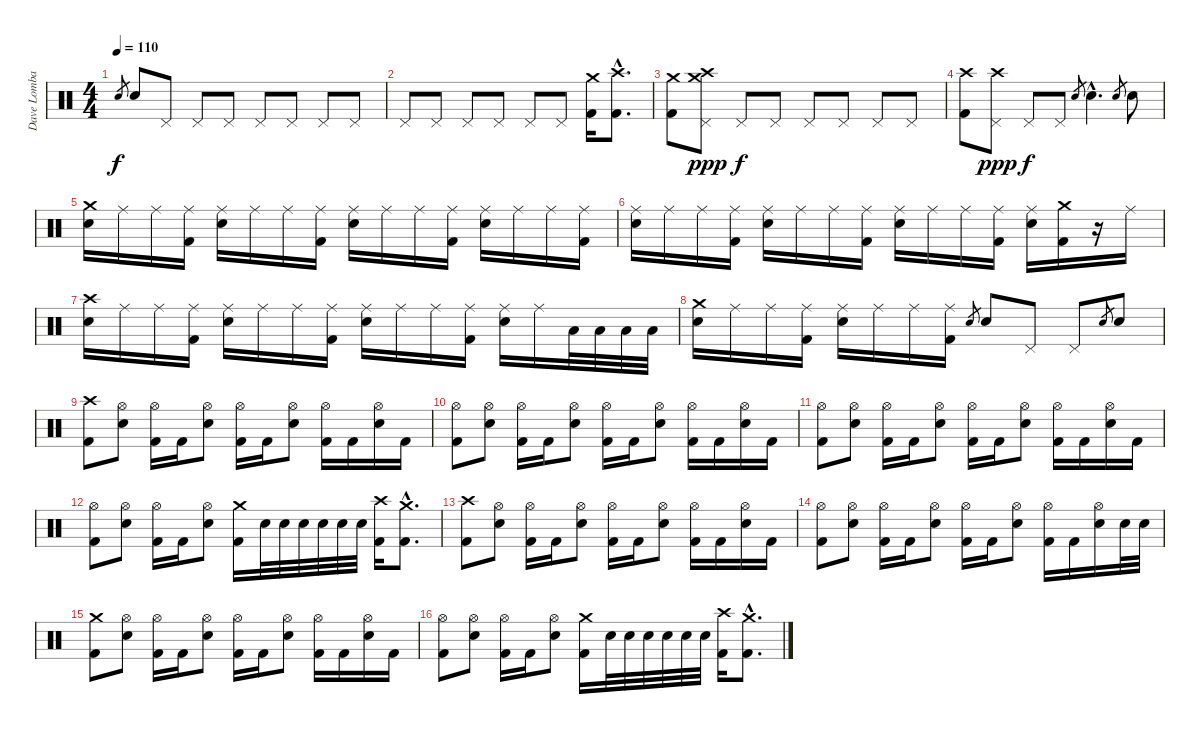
\track ("Dave Lombardo" "Dave Lomba") {instrument percussion}
\staff {score}
\articulation defaults
\ts (4 4)
\tempo 110
\clef neutral
\ks c "Electric Snare (hit)".8{gr dy f} "Electric Snare (hit)".8 "Pedal Hi-Hat (hit)".8 "Pedal Hi-Hat (hit)".8 "Pedal Hi-Hat (hit)".8 "Pedal Hi-Hat (hit)".8 "Pedal Hi-Hat (hit)".8 "Pedal Hi-Hat (hit)".8 "Pedal Hi-Hat (hit)".8
|
"Pedal Hi-Hat (hit)".8 "Pedal Hi-Hat (hit)".8 "Pedal Hi-Hat (hit)".8 "Pedal Hi-Hat (hit)".8 "Pedal Hi-Hat (hit)".8 "Pedal Hi-Hat (hit)".8 ("Crash medium (hit)" "Kick (hit) 2").16 ("Crash high (hit)"{hac} "Kick (hit) 2"{hac}).8{d} |
("Crash medium (hit)" "Kick (hit) 2").8 ("Crash high (hit)" "Crash medium (hit)" "Pedal Hi-Hat (hit)").8{dy ppp} "Pedal Hi-Hat (hit)".8{dy f} "Pedal Hi-Hat (hit)".8 "Pedal Hi-Hat (hit)".8 "Pedal Hi-Hat (hit)".8 "Pedal Hi-Hat (hit)".8 "Pedal Hi-Hat (hit)".8 |
("Crash high (hit)" "Kick (hit) 2").8 ("Crash high (hit)" "Pedal Hi-Hat (hit)").8{dy ppp} "Pedal Hi-Hat (hit)".8{dy f} "Pedal Hi-Hat (hit)".8 "Electric Snare (hit)".8{gr} "Electric Snare (hit)"{hac}.4{d} "Electric Snare (hit)".8{gr} "Electric Snare (hit)".8 |
("Crash medium (hit)" "Electric Snare (hit)").16 "Ride (middle)".16 "Ride (middle)".16 ("Ride (middle)" "Kick (hit) 2").16 ("Ride (middle)" "Electric Snare (hit)").16 "Ride (middle)".16 "Ride (middle)".16 ("Ride (middle)" "Kick (hit) 2").16 ("Ride (middle)" "Electric Snare (hit)").16 "Ride (middle)".16 "Ride (middle)".16 ("Ride (middle)" "Kick (hit) 2").16 ("Ride (middle)" "Electric Snare (hit)").16 "Ride (middle)".16 "Ride (middle)".16 ("Ride (middle)" "Kick (hit) 2").16 |
("Ride (middle)" "Electric Snare (hit)").16 "Ride (middle)".16 "Ride (middle)".16 ("Ride (middle)" "Kick (hit) 2").16 ("Ride (middle)" "Electric Snare (hit)").16 "Ride (middle)".16 "Ride (middle)".16 ("Ride (middle)" "Kick (hit) 2").16 ("Ride (middle)" "Electric Snare (hit)").16 "Ride (middle)".16 "Ride (middle)".16 ("Ride (middle)" "Kick (hit) 2").16 ("Ride (middle)" "Electric Snare (hit)").16 ("Crash medium (hit)" "Kick (hit) 2").16 r.16 "Ride (middle)".16 |
("Crash high (hit)" "Electric Snare (hit)").16 "Ride (middle)".16 "Ride (middle)".16 ("Ride (middle)" "Kick (hit) 2").16 ("Ride (middle)" "Electric Snare (hit)").16 "Ride (middle)".16 "Ride (middle)".16 ("Ride (middle)" "Kick (hit) 2").16 ("Ride (middle)" "Electric Snare (hit)").16 "Ride (middle)".16 "Ride (middle)".16 ("Ride (middle)" "Kick (hit) 2").16 ("Ride (middle)" "Electric Snare (hit)").16 "Ride (middle)".16 "Low Tom (hit)".32 "Low Tom (hit)".32 "Low Tom (hit)".32 "Low Tom (hit)".32 |
("Crash medium (hit)" "Electric Snare (hit)").16 "Ride (middle)".16 "Ride (middle)".16 ("Ride (middle)" "Kick (hit) 2").16 ("Ride (middle)" "Electric Snare (hit)").16 "Ride (middle)".16 "Ride (middle)".16 ("Ride (middle)" "Kick (hit) 2").16 "Electric Snare (hit)".8{gr} "Electric Snare (hit)".8 "Pedal Hi-Hat (hit)".8 "Pedal Hi-Hat (hit)".8 "Electric Snare (hit)".8{gr} "Electric Snare (hit)".8 |
("Crash high (hit)" "Kick (hit) 2").8 ("Electric Snare (hit)" "Hi-Hat (open)").8 ("Kick (hit) 2" "Hi-Hat (open)").16 "Kick (hit) 2".16 ("Electric Snare (hit)" "Hi-Hat (open)").8 ("Kick (hit) 2" "Hi-Hat (open)").16 "Kick (hit) 2".16 ("Electric Snare (hit)" "Hi-Hat (open)").8 ("Kick (hit) 2" "Hi-Hat (open)").16 "Kick (hit) 2".16 ("Electric Snare (hit)" "Hi-Hat (open)").16 "Kick (hit) 2".16 |
("Hi-Hat (open)" "Kick (hit) 2").8 ("Electric Snare (hit)" "Hi-Hat (open)").8 ("Kick (hit) 2" "Hi-Hat (open)").16 "Kick (hit) 2".16 ("Electric Snare (hit)" "Hi-Hat (open)").8 ("Kick (hit) 2" "Hi-Hat (open)").16 "Kick (hit) 2".16 ("Electric Snare (hit)" "Hi-Hat (open)").8 ("Kick (hit) 2" "Hi-Hat (open)").16 "Kick (hit) 2".16 ("Electric Snare (hit)" "Hi-Hat (open)").16 "Kick (hit) 2".16 |
("Hi-Hat (open)" "Kick (hit) 2").8 ("Electric Snare (hit)" "Hi-Hat (open)").8 ("Kick (hit) 2" "Hi-Hat (open)").16 "Kick (hit) 2".16 ("Electric Snare (hit)" "Hi-Hat (open)").8 ("Kick (hit) 2" "Hi-Hat (open)").16 "Kick (hit) 2".16 ("Electric Snare (hit)" "Hi-Hat (open)").8 ("Kick (hit) 2" "Hi-Hat (open)").16 "Kick (hit) 2".16 ("Electric Snare (hit)" "Hi-Hat (open)").16 "Kick (hit) 2".16 |
("Hi-Hat (open)" "Kick (hit) 2").8 ("Electric Snare (hit)" "Hi-Hat (open)").8 ("Kick (hit) 2" "Hi-Hat (open)").16 "Kick (hit) 2".16 ("Electric Snare (hit)" "Hi-Hat (open)").8 ("Kick (hit) 2" "Crash medium (hit)").16 "Electric Snare (hit)".32 "Electric Snare (hit)".32 "Electric Snare (hit)".32 "Electric Snare (hit)".32 "Electric Snare (hit)".32 "Electric Snare (hit)".32 ("Crash high (hit)" "Kick (hit) 2").16 ("Crash medium (hit)"{hac} "Kick (hit) 2"{hac}).8{d} |
("Crash high (hit)" "Kick (hit) 2").8 ("Electric Snare (hit)" "Hi-Hat (open)").8 ("Kick (hit) 2" "Hi-Hat (open)").16 "Kick (hit) 2".16 ("Electric Snare (hit)" "Hi-Hat (open)").8 ("Kick (hit) 2" "Hi-Hat (open)").16 "Kick (hit) 2".16 ("Electric Snare (hit)" "Hi-Hat (open)").8 ("Kick (hit) 2" "Hi-Hat (open)").16 "Kick (hit) 2".16 ("Electric Snare (hit)" "Hi-Hat (open)").16 "Kick (hit) 2".16 |
("Hi-Hat (open)" "Kick (hit) 2").8 ("Electric Snare (hit)" "Hi-Hat (open)").8 ("Kick (hit) 2" "Hi-Hat (open)").16 "Kick (hit) 2".16 ("Electric Snare (hit)" "Hi-Hat (open)").8 ("Kick (hit) 2" "Hi-Hat (open)").16 "Kick (hit) 2".16 ("Electric Snare (hit)" "Hi-Hat (open)").8 ("Kick (hit) 2" "Hi-Hat (open)").16 "Kick (hit) 2".16 ("Electric Snare (hit)" "Hi-Hat (open)").16 "Electric Snare (hit)".32 "Electric Snare (hit)".32 |
("Crash medium (hit)" "Kick (hit) 2").8 ("Electric Snare (hit)" "Hi-Hat (open)").8 ("Kick (hit) 2" "Hi-Hat (open)").16 "Kick (hit) 2".16 ("Electric Snare (hit)" "Hi-Hat (open)").8 ("Kick (hit) 2" "Hi-Hat (open)").16 "Kick (hit) 2".16 ("Electric Snare (hit)" "Hi-Hat (open)").8 ("Kick (hit) 2" "Hi-Hat (open)").16 "Kick (hit) 2".16 ("Electric Snare (hit)" "Hi-Hat (open)").16 "Kick (hit) 2".16 |
("Hi-Hat (open)" "Kick (hit) 2").8 ("Electric Snare (hit)" "Hi-Hat (open)").8 ("Kick (hit) 2" "Hi-Hat (open)").16 "Kick (hit) 2".16 ("Electric Snare (hit)" "Hi-Hat (open)").8 ("Kick (hit) 2" "Crash medium (hit)").16 "Electric Snare (hit)".32 "Electric Snare (hit)".32 "Electric Snare (hit)".32 "Electric Snare (hit)".32 "Electric Snare (hit)".32 "Electric Snare (hit)".32 ("Crash high (hit)" "Kick (hit) 2").16 ("Crash medium (hit)"{hac} "Kick (hit) 2"{hac}).8{d}
